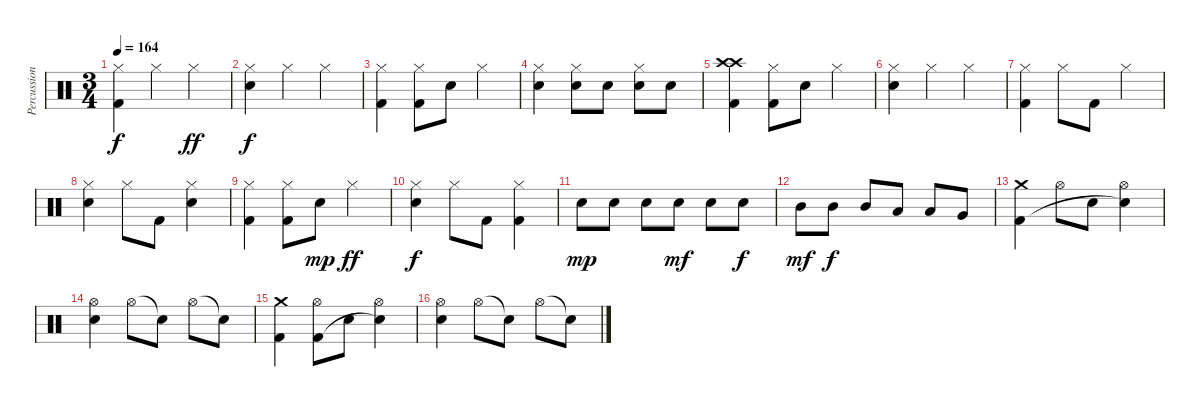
\track ("Percussion" "Percussion") {instrument percussion}
\staff {score}
\articulation defaults
\ts (3 4)
\tempo 164
\clef neutral
\ks c
("Hi-Hat (closed)" "Kick (hit) 2").4{dy f} "Hi-Hat (closed)".4 "Hi-Hat (closed)".4{dy ff} |
("Hi-Hat (closed)" "Snare (hit) 2").4{dy f} "Hi-Hat (closed)".4 "Hi-Hat (closed)".4 |
("Hi-Hat (closed)" "Kick (hit) 2").4 ("Hi-Hat (closed)" "Kick (hit) 2").8 "Snare (hit) 2".8 "Hi-Hat (closed)".4 |
("Hi-Hat (closed)" "Snare (hit) 2").4 ("Hi-Hat (closed)" "Snare (hit) 2").8 "Snare (hit) 2".8 ("Hi-Hat (closed)" "Snare (hit) 2").8 "Snare (hit) 2".8 |
("Crash high (hit)" "Crash high (hit)" "Kick (hit) 2").4 ("Hi-Hat (closed)" "Kick (hit) 2").8 "Snare (hit) 2".8 "Hi-Hat (closed)".4 |
("Hi-Hat (closed)" "Snare (hit) 2").4 "Hi-Hat (closed)".4 "Hi-Hat (closed)".4 |
("Hi-Hat (closed)" "Kick (hit) 2").4 "Hi-Hat (closed)".8 "Kick (hit) 2".8 "Hi-Hat (closed)".4 |
("Hi-Hat (closed)" "Snare (hit) 2").4 "Hi-Hat (closed)".8 "Kick (hit) 2".8 ("Hi-Hat (closed)" "Snare (hit) 2").4 |
("Hi-Hat (closed)" "Kick (hit) 2").4 ("Hi-Hat (closed)" "Kick (hit) 2").8 "Snare (hit) 2".8{dy mp} "Hi-Hat (closed)".4{dy ff} |
("Hi-Hat (closed)" "Snare (hit) 2").4{dy f} "Hi-Hat (closed)".8 "Kick (hit) 2".8 ("Hi-Hat (closed)" "Kick (hit) 2").4 |
"Snare (hit) 2".8{dy mp} "Snare (hit) 2".8 "Snare (hit) 2".8 "Snare (hit) 2".8{dy mf} "Snare (hit) 2".8 "Snare (hit) 2".8{dy f} |
"Mid Tom (hit)".8{dy mf} "Mid Tom (hit)".8{dy f} "Mid Tom (hit)".8 "Low Tom (hit)".8 "Low Tom (hit)".8 "Very Low Tom (hit)".8 |
("Crash medium (hit)" "Kick (hit) 2").4 "Hi-Hat (open)".8 "Snare (hit) 2".8 ("Hi-Hat (open)" "Snare (hit) 2"{t}).4 |
("Hi-Hat (open)" "Snare (hit) 2").4 "Hi-Hat (open)".8 "Snare (hit)"{t}.8 "Hi-Hat (open)".8 "Snare (hit)"{t}.8 |
("Crash medium (hit)" "Kick (hit) 2").4 ("Hi-Hat (open)" "Kick (hit) 2").8 "Snare (hit) 2".8 ("Hi-Hat (open)" "Snare (hit) 2"{t}).4 |
("Hi-Hat (open)" "Snare (hit) 2").4 "Hi-Hat (open)".8 "Snare (hit)"{t}.8 "Hi-Hat (open)".8 "Snare (hit)"{t}.8
